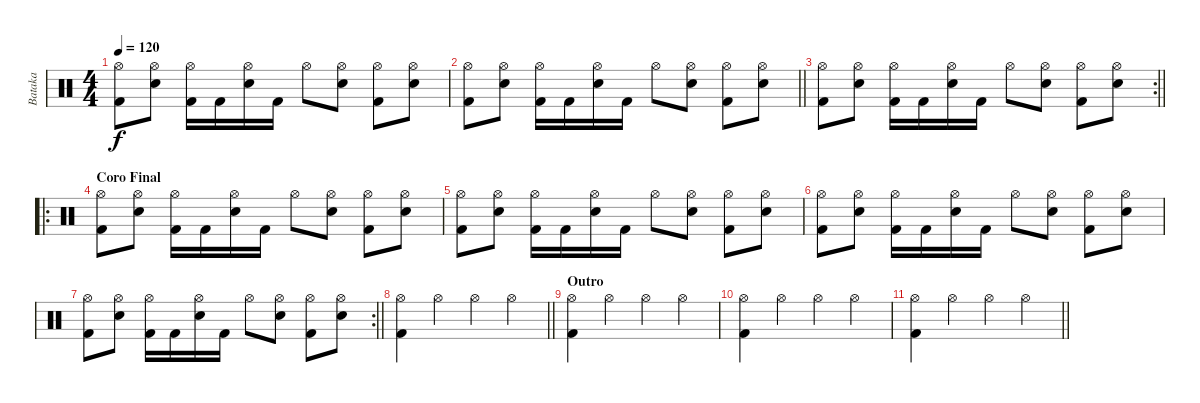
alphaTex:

\track ("Bataka" "Bataka") {instrument percussion}
\staff {score}
\articulation defaults
\ts (4 4)
\tempo 120
\clef neutral
\ks c
("Hi-Hat (open)" "Kick (hit) 2").8{dy f} ("Hi-Hat (open)" "Electric Snare (hit)").8 ("Hi-Hat (open)" "Kick (hit) 2").16 "Kick (hit) 2".16 ("Hi-Hat (open)" "Electric Snare (hit)").16 "Kick (hit) 2".16 "Hi-Hat (open)".8 ("Hi-Hat (open)" "Electric Snare (hit)").8 ("Hi-Hat (open)" "Kick (hit) 2").8 ("Hi-Hat (open)" "Electric Snare (hit)").8 |
\barLineRight lightlight
("Hi-Hat (open)" "Kick (hit) 2").8 ("Hi-Hat (open)" "Electric Snare (hit)").8 ("Hi-Hat (open)" "Kick (hit) 2").16 "Kick (hit) 2".16 ("Hi-Hat (open)" "Electric Snare (hit)").16 "Kick (hit) 2".16 "Hi-Hat (open)".8 ("Hi-Hat (open)" "Electric Snare (hit)").8 ("Hi-Hat (open)" "Kick (hit) 2").8 ("Hi-Hat (open)" "Electric Snare (hit)").8 |
\rc 2
\barLineRight lightlight
("Hi-Hat (open)" "Kick (hit) 2").8 ("Hi-Hat (open)" "Electric Snare (hit)").8 ("Hi-Hat (open)" "Kick (hit) 2").16 "Kick (hit) 2".16 ("Hi-Hat (open)" "Electric Snare (hit)").16 "Kick (hit) 2".16 "Hi-Hat (open)".8 ("Hi-Hat (open)" "Electric Snare (hit)").8 ("Hi-Hat (open)" "Kick (hit) 2").8 ("Hi-Hat (open)" "Electric Snare (hit)").8 |
\ro
\section ("" "Coro Final")
("Hi-Hat (open)" "Kick (hit) 2").8 ("Hi-Hat (open)" "Electric Snare (hit)").8 ("Hi-Hat (open)" "Kick (hit) 2").16 "Kick (hit) 2".16 ("Hi-Hat (open)" "Electric Snare (hit)").16 "Kick (hit) 2".16 "Hi-Hat (open)".8 ("Hi-Hat (open)" "Electric Snare (hit)").8 ("Hi-Hat (open)" "Kick (hit) 2").8 ("Hi-Hat (open)" "Electric Snare (hit)").8 |
("Hi-Hat (open)" "Kick (hit) 2").8 ("Hi-Hat (open)" "Electric Snare (hit)").8 ("Hi-Hat (open)" "Kick (hit) 2").16 "Kick (hit) 2".16 ("Hi-Hat (open)" "Electric Snare (hit)").16 "Kick (hit) 2".16 "Hi-Hat (open)".8 ("Hi-Hat (open)" "Electric Snare (hit)").8 ("Hi-Hat (open)" "Kick (hit) 2").8 ("Hi-Hat (open)" "Electric Snare (hit)").8 |
("Hi-Hat (open)" "Kick (hit) 2").8 ("Hi-Hat (open)" "Electric Snare (hit)").8 ("Hi-Hat (open)" "Kick (hit) 2").16 "Kick (hit) 2".16 ("Hi-Hat (open)" "Electric Snare (hit)").16 "Kick (hit) 2".16 "Hi-Hat (open)".8 ("Hi-Hat (open)" "Electric Snare (hit)").8 ("Hi-Hat (open)" "Kick (hit) 2").8 ("Hi-Hat (open)" "Electric Snare (hit)").8 |
\rc 2
\barLineRight lightlight
("Hi-Hat (open)" "Kick (hit) 2").8 ("Hi-Hat (open)" "Electric Snare (hit)").8 ("Hi-Hat (open)" "Kick (hit) 2").16 "Kick (hit) 2".16 ("Hi-Hat (open)" "Electric Snare (hit)").16 "Kick (hit) 2".16 "Hi-Hat (open)".8 ("Hi-Hat (open)" "Electric Snare (hit)").8 ("Hi-Hat (open)" "Kick (hit) 2").8 ("Hi-Hat (open)" "Electric Snare (hit)").8 |
\barLineRight lightlight
("Hi-Hat (open)" "Kick (hit) 2").4 "Hi-Hat (open)".4 "Hi-Hat (open)".4 "Hi-Hat (open)".4 |
\section ("" "Outro")
("Hi-Hat (open)" "Kick (hit) 2").4 "Hi-Hat (open)".4 "Hi-Hat (open)".4 "Hi-Hat (open)".4 |
("Hi-Hat (open)" "Kick (hit) 2").4 "Hi-Hat (open)".4 "Hi-Hat (open)".4 "Hi-Hat (open)".4 |
\barLineRight lightlight
("Hi-Hat (open)" "Kick (hit) 2").4 "Hi-Hat (open)".4 "Hi-Hat (open)".4 "Hi-Hat (open)".4
